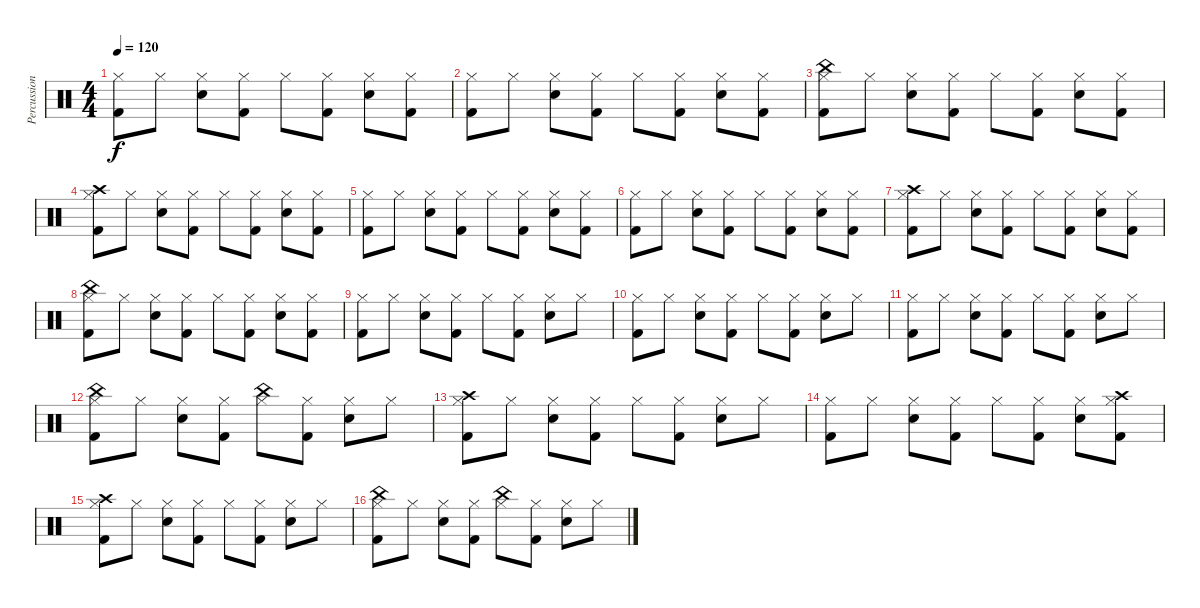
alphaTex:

\track ("Percussion" "Percussion") {instrument percussion}
\staff {score}
\articulation defaults
\ts (4 4)
\tempo 120
\clef neutral
\ks c
("Hi-Hat (closed)" "Kick (hit) 2").8{dy f} "Hi-Hat (closed)".8 ("Hi-Hat (closed)" "Snare (hit) 2").8 ("Hi-Hat (closed)" "Kick (hit) 2").8 "Hi-Hat (closed)".8 ("Hi-Hat (closed)" "Kick (hit) 2").8 ("Hi-Hat (closed)" "Snare (hit) 2").8 ("Hi-Hat (closed)" "Kick (hit) 2").8 |
("Hi-Hat (closed)" "Kick (hit) 2").8 "Hi-Hat (closed)".8 ("Hi-Hat (closed)" "Snare (hit) 2").8 ("Hi-Hat (closed)" "Kick (hit) 2").8 "Hi-Hat (closed)".8 ("Hi-Hat (closed)" "Kick (hit) 2").8 ("Hi-Hat (closed)" "Snare (hit) 2").8 ("Hi-Hat (closed)" "Kick (hit) 2").8 |
("China (hit)" "Hi-Hat (closed)" "Kick (hit) 2").8 "Hi-Hat (closed)".8 ("Hi-Hat (closed)" "Snare (hit) 2").8 ("Hi-Hat (closed)" "Kick (hit) 2").8 "Hi-Hat (closed)".8 ("Hi-Hat (closed)" "Kick (hit) 2").8 ("Hi-Hat (closed)" "Snare (hit) 2").8 ("Hi-Hat (closed)" "Kick (hit) 2").8 |
("Crash high (hit)" "Hi-Hat (closed)" "Kick (hit) 2").8 "Hi-Hat (closed)".8 ("Hi-Hat (closed)" "Snare (hit) 2").8 ("Hi-Hat (closed)" "Kick (hit) 2").8 "Hi-Hat (closed)".8 ("Hi-Hat (closed)" "Kick (hit) 2").8 ("Hi-Hat (closed)" "Snare (hit) 2").8 ("Hi-Hat (closed)" "Kick (hit) 2").8 |
("Hi-Hat (closed)" "Kick (hit) 2").8 "Hi-Hat (closed)".8 ("Hi-Hat (closed)" "Snare (hit) 2").8 ("Hi-Hat (closed)" "Kick (hit) 2").8 "Hi-Hat (closed)".8 ("Hi-Hat (closed)" "Kick (hit) 2").8 ("Hi-Hat (closed)" "Snare (hit) 2").8 ("Hi-Hat (closed)" "Kick (hit) 2").8 |
("Hi-Hat (closed)" "Kick (hit) 2").8 "Hi-Hat (closed)".8 ("Hi-Hat (closed)" "Snare (hit) 2").8 ("Hi-Hat (closed)" "Kick (hit) 2").8 "Hi-Hat (closed)".8 ("Hi-Hat (closed)" "Kick (hit) 2").8 ("Hi-Hat (closed)" "Snare (hit) 2").8 ("Hi-Hat (closed)" "Kick (hit) 2").8 |
("Crash high (hit)" "Hi-Hat (closed)" "Kick (hit) 2").8 "Hi-Hat (closed)".8 ("Hi-Hat (closed)" "Snare (hit) 2").8 ("Hi-Hat (closed)" "Kick (hit) 2").8 "Hi-Hat (closed)".8 ("Hi-Hat (closed)" "Kick (hit) 2").8 ("Hi-Hat (closed)" "Snare (hit) 2").8 ("Hi-Hat (closed)" "Kick (hit) 2").8 |
("China (hit)" "Hi-Hat (closed)" "Kick (hit) 2").8 "Hi-Hat (closed)".8 ("Hi-Hat (closed)" "Snare (hit) 2").8 ("Hi-Hat (closed)" "Kick (hit) 2").8 "Hi-Hat (closed)".8 ("Hi-Hat (closed)" "Kick (hit) 2").8 ("Hi-Hat (closed)" "Snare (hit) 2").8 ("Hi-Hat (closed)" "Kick (hit) 2").8 |
("Hi-Hat (closed)" "Kick (hit) 2").8 "Hi-Hat (closed)".8 ("Hi-Hat (closed)" "Snare (hit) 2").8 ("Hi-Hat (closed)" "Kick (hit) 2").8 "Hi-Hat (closed)".8 ("Hi-Hat (closed)" "Kick (hit) 2").8 ("Hi-Hat (closed)" "Snare (hit) 2").8 "Hi-Hat (closed)".8 |
("Hi-Hat (closed)" "Kick (hit) 2").8 "Hi-Hat (closed)".8 ("Hi-Hat (closed)" "Snare (hit) 2").8 ("Hi-Hat (closed)" "Kick (hit) 2").8 "Hi-Hat (closed)".8 ("Hi-Hat (closed)" "Kick (hit) 2").8 ("Hi-Hat (closed)" "Snare (hit) 2").8 "Hi-Hat (closed)".8 |
("Hi-Hat (closed)" "Kick (hit) 2").8 "Hi-Hat (closed)".8 ("Hi-Hat (closed)" "Snare (hit) 2").8 ("Hi-Hat (closed)" "Kick (hit) 2").8 "Hi-Hat (closed)".8 ("Hi-Hat (closed)" "Kick (hit) 2").8 ("Hi-Hat (closed)" "Snare (hit) 2").8 "Hi-Hat (closed)".8 |
("China (hit)" "Hi-Hat (closed)" "Kick (hit) 2").8 "Hi-Hat (closed)".8 ("Hi-Hat (closed)" "Snare (hit) 2").8 ("Hi-Hat (closed)" "Kick (hit) 2").8 ("China (hit)" "Hi-Hat (closed)").8 ("Hi-Hat (closed)" "Kick (hit) 2").8 ("Hi-Hat (closed)" "Snare (hit) 2").8 "Hi-Hat (closed)".8 |
("Crash high (hit)" "Hi-Hat (closed)" "Kick (hit) 2").8 "Hi-Hat (closed)".8 ("Hi-Hat (closed)" "Snare (hit) 2").8 ("Hi-Hat (closed)" "Kick (hit) 2").8 "Hi-Hat (closed)".8 ("Hi-Hat (closed)" "Kick (hit) 2").8 ("Hi-Hat (closed)" "Snare (hit) 2").8 "Hi-Hat (closed)".8 |
("Hi-Hat (closed)" "Kick (hit) 2").8 "Hi-Hat (closed)".8 ("Hi-Hat (closed)" "Snare (hit) 2").8 ("Hi-Hat (closed)" "Kick (hit) 2").8 "Hi-Hat (closed)".8 ("Hi-Hat (closed)" "Kick (hit) 2").8 ("Hi-Hat (closed)" "Snare (hit) 2").8 ("Crash high (hit)" "Hi-Hat (closed)" "Kick (hit) 2").8 |
("Crash high (hit)" "Hi-Hat (closed)" "Kick (hit) 2").8 "Hi-Hat (closed)".8 ("Hi-Hat (closed)" "Snare (hit) 2").8 ("Hi-Hat (closed)" "Kick (hit) 2").8 "Hi-Hat (closed)".8 ("Hi-Hat (closed)" "Kick (hit) 2").8 ("Hi-Hat (closed)" "Snare (hit) 2").8 "Hi-Hat (closed)".8 |
("China (hit)" "Hi-Hat (closed)" "Kick (hit) 2").8 "Hi-Hat (closed)".8 ("Hi-Hat (closed)" "Snare (hit) 2").8 ("Hi-Hat (closed)" "Kick (hit) 2").8 ("China (hit)" "Hi-Hat (closed)").8 ("Hi-Hat (closed)" "Kick (hit) 2").8 ("Hi-Hat (closed)" "Snare (hit) 2").8 "Hi-Hat (closed)".8
